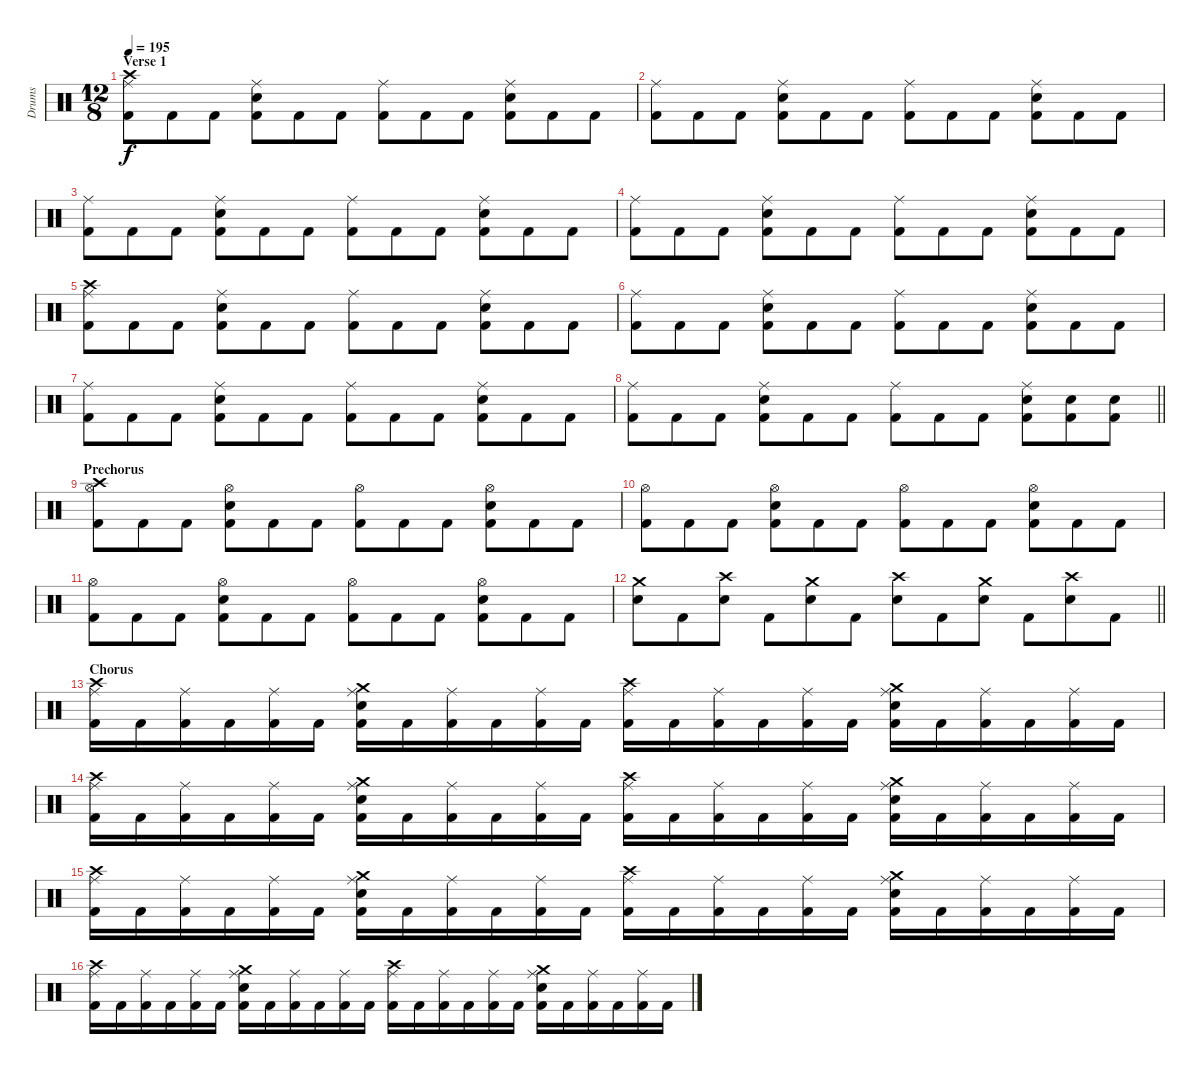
\track ("Drums" "Drums") {instrument percussion}
\staff {score}
\articulation defaults
\ts (12 8)
\section ("" "Verse 1")
\tempo 195
\clef neutral
\ks c
("Crash high (hit)" "Ride (middle)" "Kick (hit) 2").8{dy f} "Kick (hit) 2".8 "Kick (hit) 2".8 ("Ride (middle)" "Snare (hit) 2" "Kick (hit) 2").8 "Kick (hit) 2".8 "Kick (hit) 2".8 ("Ride (middle)" "Kick (hit) 2").8 "Kick (hit) 2".8 "Kick (hit) 2".8 ("Ride (middle)" "Snare (hit) 2" "Kick (hit) 2").8 "Kick (hit) 2".8 "Kick (hit) 2".8 |
("Ride (middle)" "Kick (hit) 2").8 "Kick (hit) 2".8 "Kick (hit) 2".8 ("Ride (middle)" "Snare (hit) 2" "Kick (hit) 2").8 "Kick (hit) 2".8 "Kick (hit) 2".8 ("Ride (middle)" "Kick (hit) 2").8 "Kick (hit) 2".8 "Kick (hit) 2".8 ("Ride (middle)" "Snare (hit) 2" "Kick (hit) 2").8 "Kick (hit) 2".8 "Kick (hit) 2".8 |
("Ride (middle)" "Kick (hit) 2").8 "Kick (hit) 2".8 "Kick (hit) 2".8 ("Ride (middle)" "Snare (hit) 2" "Kick (hit) 2").8 "Kick (hit) 2".8 "Kick (hit) 2".8 ("Ride (middle)" "Kick (hit) 2").8 "Kick (hit) 2".8 "Kick (hit) 2".8 ("Ride (middle)" "Snare (hit) 2" "Kick (hit) 2").8 "Kick (hit) 2".8 "Kick (hit) 2".8 |
("Ride (middle)" "Kick (hit) 2").8 "Kick (hit) 2".8 "Kick (hit) 2".8 ("Ride (middle)" "Snare (hit) 2" "Kick (hit) 2").8 "Kick (hit) 2".8 "Kick (hit) 2".8 ("Ride (middle)" "Kick (hit) 2").8 "Kick (hit) 2".8 "Kick (hit) 2".8 ("Ride (middle)" "Snare (hit) 2" "Kick (hit) 2").8 "Kick (hit) 2".8 "Kick (hit) 2".8 |
("Crash high (hit)" "Ride (middle)" "Kick (hit) 2").8 "Kick (hit) 2".8 "Kick (hit) 2".8 ("Ride (middle)" "Snare (hit) 2" "Kick (hit) 2").8 "Kick (hit) 2".8 "Kick (hit) 2".8 ("Ride (middle)" "Kick (hit) 2").8 "Kick (hit) 2".8 "Kick (hit) 2".8 ("Ride (middle)" "Snare (hit) 2" "Kick (hit) 2").8 "Kick (hit) 2".8 "Kick (hit) 2".8 |
("Ride (middle)" "Kick (hit) 2").8 "Kick (hit) 2".8 "Kick (hit) 2".8 ("Ride (middle)" "Snare (hit) 2" "Kick (hit) 2").8 "Kick (hit) 2".8 "Kick (hit) 2".8 ("Ride (middle)" "Kick (hit) 2").8 "Kick (hit) 2".8 "Kick (hit) 2".8 ("Ride (middle)" "Snare (hit) 2" "Kick (hit) 2").8 "Kick (hit) 2".8 "Kick (hit) 2".8 |
("Ride (middle)" "Kick (hit) 2").8 "Kick (hit) 2".8 "Kick (hit) 2".8 ("Ride (middle)" "Snare (hit) 2" "Kick (hit) 2").8 "Kick (hit) 2".8 "Kick (hit) 2".8 ("Ride (middle)" "Kick (hit) 2").8 "Kick (hit) 2".8 "Kick (hit) 2".8 ("Ride (middle)" "Snare (hit) 2" "Kick (hit) 2").8 "Kick (hit) 2".8 "Kick (hit) 2".8 |
\barLineRight lightlight
("Ride (middle)" "Kick (hit) 2").8 "Kick (hit) 2".8 "Kick (hit) 2".8 ("Ride (middle)" "Snare (hit) 2" "Kick (hit) 2").8 "Kick (hit) 2".8 "Kick (hit) 2".8 ("Ride (middle)" "Kick (hit) 2").8 "Kick (hit) 2".8 "Kick (hit) 2".8 ("Ride (middle)" "Snare (hit) 2" "Kick (hit) 2").8 ("Snare (hit) 2" "Kick (hit) 2").8 ("Snare (hit) 2" "Kick (hit) 2").8 |
\section ("" "Prechorus")
("Crash high (hit)" "Hi-Hat (open)" "Kick (hit) 2").8 "Kick (hit) 2".8 "Kick (hit) 2".8 ("Hi-Hat (open)" "Snare (hit) 2" "Kick (hit) 2").8 "Kick (hit) 2".8 "Kick (hit) 2".8 ("Hi-Hat (open)" "Kick (hit) 2").8 "Kick (hit) 2".8 "Kick (hit) 2".8 ("Hi-Hat (open)" "Snare (hit) 2" "Kick (hit) 2").8 "Kick (hit) 2".8 "Kick (hit) 2".8 |
("Hi-Hat (open)" "Kick (hit) 2").8 "Kick (hit) 2".8 "Kick (hit) 2".8 ("Hi-Hat (open)" "Snare (hit) 2" "Kick (hit) 2").8 "Kick (hit) 2".8 "Kick (hit) 2".8 ("Hi-Hat (open)" "Kick (hit) 2").8 "Kick (hit) 2".8 "Kick (hit) 2".8 ("Hi-Hat (open)" "Snare (hit) 2" "Kick (hit) 2").8 "Kick (hit) 2".8 "Kick (hit) 2".8 |
("Hi-Hat (open)" "Kick (hit) 2").8 "Kick (hit) 2".8 "Kick (hit) 2".8 ("Hi-Hat (open)" "Snare (hit) 2" "Kick (hit) 2").8 "Kick (hit) 2".8 "Kick (hit) 2".8 ("Hi-Hat (open)" "Kick (hit) 2").8 "Kick (hit) 2".8 "Kick (hit) 2".8 ("Hi-Hat (open)" "Snare (hit) 2" "Kick (hit) 2").8 "Kick (hit) 2".8 "Kick (hit) 2".8 |
\barLineRight lightlight
("Crash medium (hit)" "Snare (hit) 2").8 "Kick (hit) 2".8 ("Crash high (hit)" "Snare (hit) 2").8 "Kick (hit) 2".8 ("Crash medium (hit)" "Snare (hit) 2").8 "Kick (hit) 2".8 ("Crash high (hit)" "Snare (hit) 2").8 "Kick (hit) 2".8 ("Crash medium (hit)" "Snare (hit) 2").8 "Kick (hit) 2".8 ("Crash high (hit)" "Snare (hit) 2").8 "Kick (hit) 2".8 |
\section ("" "Chorus")
("Crash high (hit)" "Ride (middle)" "Kick (hit) 2").16 "Kick (hit) 2".16 ("Ride (middle)" "Kick (hit) 2").16 "Kick (hit) 2".16 ("Ride (middle)" "Kick (hit) 2").16 "Kick (hit) 2".16 ("Crash medium (hit)" "Ride (middle)" "Snare (hit) 2" "Kick (hit) 2").16 "Kick (hit) 2".16 ("Ride (middle)" "Kick (hit) 2").16 "Kick (hit) 2".16 ("Ride (middle)" "Kick (hit) 2").16 "Kick (hit) 2".16 ("Crash high (hit)" "Ride (middle)" "Kick (hit) 2").16 "Kick (hit) 2".16 ("Ride (middle)" "Kick (hit) 2").16 "Kick (hit) 2".16 ("Ride (middle)" "Kick (hit) 2").16 "Kick (hit) 2".16 ("Crash medium (hit)" "Ride (middle)" "Snare (hit) 2" "Kick (hit) 2").16 "Kick (hit) 2".16 ("Ride (middle)" "Kick (hit) 2").16 "Kick (hit) 2".16 ("Ride (middle)" "Kick (hit) 2").16 "Kick (hit) 2".16 |
("Crash high (hit)" "Ride (middle)" "Kick (hit) 2").16 "Kick (hit) 2".16 ("Ride (middle)" "Kick (hit) 2").16 "Kick (hit) 2".16 ("Ride (middle)" "Kick (hit) 2").16 "Kick (hit) 2".16 ("Crash medium (hit)" "Ride (middle)" "Snare (hit) 2" "Kick (hit) 2").16 "Kick (hit) 2".16 ("Ride (middle)" "Kick (hit) 2").16 "Kick (hit) 2".16 ("Ride (middle)" "Kick (hit) 2").16 "Kick (hit) 2".16 ("Crash high (hit)" "Ride (middle)" "Kick (hit) 2").16 "Kick (hit) 2".16 ("Ride (middle)" "Kick (hit) 2").16 "Kick (hit) 2".16 ("Ride (middle)" "Kick (hit) 2").16 "Kick (hit) 2".16 ("Crash medium (hit)" "Ride (middle)" "Snare (hit) 2" "Kick (hit) 2").16 "Kick (hit) 2".16 ("Ride (middle)" "Kick (hit) 2").16 "Kick (hit) 2".16 ("Ride (middle)" "Kick (hit) 2").16 "Kick (hit) 2".16 |
("Crash high (hit)" "Ride (middle)" "Kick (hit) 2").16 "Kick (hit) 2".16 ("Ride (middle)" "Kick (hit) 2").16 "Kick (hit) 2".16 ("Ride (middle)" "Kick (hit) 2").16 "Kick (hit) 2".16 ("Crash medium (hit)" "Ride (middle)" "Snare (hit) 2" "Kick (hit) 2").16 "Kick (hit) 2".16 ("Ride (middle)" "Kick (hit) 2").16 "Kick (hit) 2".16 ("Ride (middle)" "Kick (hit) 2").16 "Kick (hit) 2".16 ("Crash high (hit)" "Ride (middle)" "Kick (hit) 2").16 "Kick (hit) 2".16 ("Ride (middle)" "Kick (hit) 2").16 "Kick (hit) 2".16 ("Ride (middle)" "Kick (hit) 2").16 "Kick (hit) 2".16 ("Crash medium (hit)" "Ride (middle)" "Snare (hit) 2" "Kick (hit) 2").16 "Kick (hit) 2".16 ("Ride (middle)" "Kick (hit) 2").16 "Kick (hit) 2".16 ("Ride (middle)" "Kick (hit) 2").16 "Kick (hit) 2".16 |
("Crash high (hit)" "Ride (middle)" "Kick (hit) 2").16 "Kick (hit) 2".16 ("Ride (middle)" "Kick (hit) 2").16 "Kick (hit) 2".16 ("Ride (middle)" "Kick (hit) 2").16 "Kick (hit) 2".16 ("Crash medium (hit)" "Ride (middle)" "Snare (hit) 2" "Kick (hit) 2").16 "Kick (hit) 2".16 ("Ride (middle)" "Kick (hit) 2").16 "Kick (hit) 2".16 ("Ride (middle)" "Kick (hit) 2").16 "Kick (hit) 2".16 ("Crash high (hit)" "Ride (middle)" "Kick (hit) 2").16 "Kick (hit) 2".16 ("Ride (middle)" "Kick (hit) 2").16 "Kick (hit) 2".16 ("Ride (middle)" "Kick (hit) 2").16 "Kick (hit) 2".16 ("Crash medium (hit)" "Ride (middle)" "Snare (hit) 2" "Kick (hit) 2").16 "Kick (hit) 2".16 ("Ride (middle)" "Kick (hit) 2").16 "Kick (hit) 2".16 ("Ride (middle)" "Kick (hit) 2").16 "Kick (hit) 2".16
